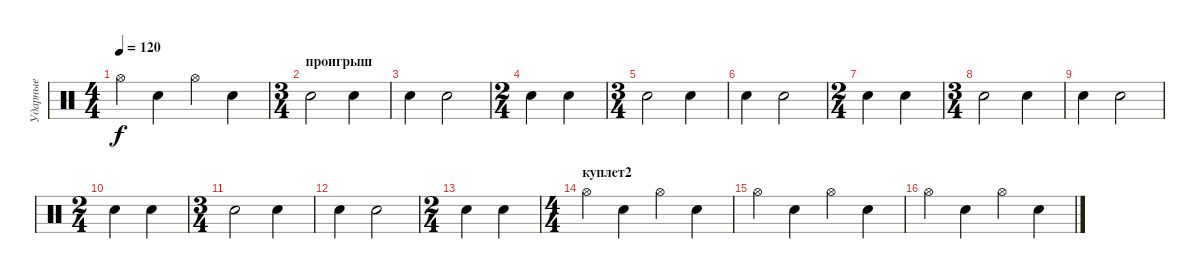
\track ("Ударные" "Ударные") {instrument percussion}
\staff {score}
\articulation defaults
\ts (4 4)
\tempo 120
\clef neutral
\ks c "Hi-Hat (open)".4{dy f} "Electric Snare (hit)".4 "Hi-Hat (open)".4 "Electric Snare (hit)".4
|
\ts (3 4)
\section ("" "проигрыш")
"Electric Snare (hit)".2 "Electric Snare (hit)".4 |
"Electric Snare (hit)".4 "Electric Snare (hit)".2 |
\ts (2 4)
"Electric Snare (hit)".4 "Electric Snare (hit)".4 |
\ts (3 4)
"Electric Snare (hit)".2 "Electric Snare (hit)".4 |
"Electric Snare (hit)".4 "Electric Snare (hit)".2 |
\ts (2 4)
"Electric Snare (hit)".4 "Electric Snare (hit)".4 |
\ts (3 4)
"Electric Snare (hit)".2 "Electric Snare (hit)".4 |
"Electric Snare (hit)".4 "Electric Snare (hit)".2 |
\ts (2 4)
"Electric Snare (hit)".4 "Electric Snare (hit)".4 |
\ts (3 4)
"Electric Snare (hit)".2 "Electric Snare (hit)".4 |
"Electric Snare (hit)".4 "Electric Snare (hit)".2 |
\ts (2 4)
"Electric Snare (hit)".4 "Electric Snare (hit)".4 |
\ts (4 4)
\section ("" "куплет2")
"Hi-Hat (open)".4 "Electric Snare (hit)".4 "Hi-Hat (open)".4 "Electric Snare (hit)".4 |
"Hi-Hat (open)".4 "Electric Snare (hit)".4 "Hi-Hat (open)".4 "Electric Snare (hit)".4 |
"Hi-Hat (open)".4 "Electric Snare (hit)".4 "Hi-Hat (open)".4 "Electric Snare (hit)".4
